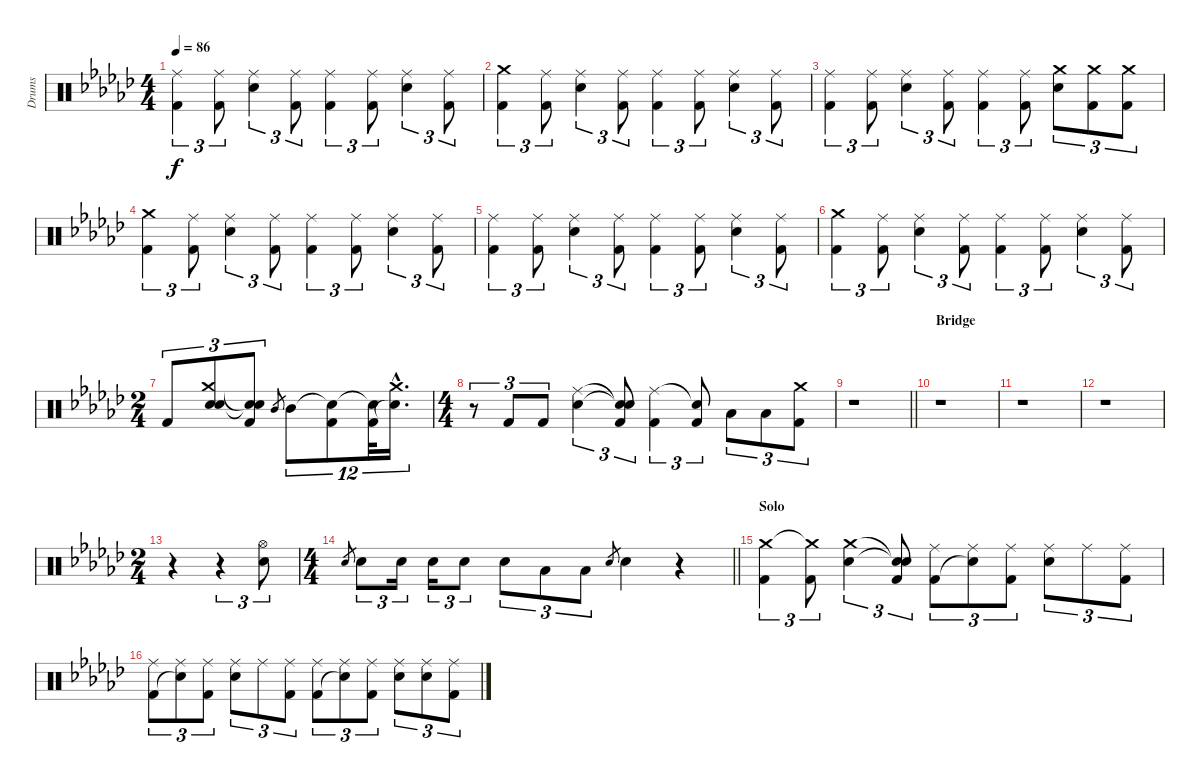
\track ("Drums" "Drums") {instrument percussion}
\staff {score}
\articulation defaults
\ts (4 4)
\tempo 86
\clef neutral
\ks ebminor
("Ride (middle)" "Kick (hit) 2").4{tu (3 2) dy f} ("Ride (middle)" "Kick (hit) 2").8{tu (3 2)} ("Ride (middle)" "Electric Snare (hit)").4{tu (3 2)} ("Ride (middle)" "Kick (hit) 2").8{tu (3 2)} ("Ride (middle)" "Kick (hit) 2").4{tu (3 2)} ("Ride (middle)" "Kick (hit) 2").8{tu (3 2)} ("Ride (middle)" "Electric Snare (hit)").4{tu (3 2)} ("Ride (middle)" "Kick (hit) 2").8{tu (3 2)} |
("Crash medium (hit)" "Kick (hit) 2").4{tu (3 2)} ("Ride (middle)" "Kick (hit) 2").8{tu (3 2)} ("Ride (middle)" "Electric Snare (hit)").4{tu (3 2)} ("Ride (middle)" "Kick (hit) 2").8{tu (3 2)} ("Ride (middle)" "Kick (hit) 2").4{tu (3 2)} ("Ride (middle)" "Kick (hit) 2").8{tu (3 2)} ("Ride (middle)" "Electric Snare (hit)").4{tu (3 2)} ("Ride (middle)" "Kick (hit) 2").8{tu (3 2)} |
("Ride (middle)" "Kick (hit) 2").4{tu (3 2)} ("Ride (middle)" "Kick (hit) 2").8{tu (3 2)} ("Ride (middle)" "Electric Snare (hit)").4{tu (3 2)} ("Ride (middle)" "Kick (hit) 2").8{tu (3 2)} ("Ride (middle)" "Kick (hit) 2").4{tu (3 2)} ("Ride (middle)" "Kick (hit) 2").8{tu (3 2)} ("Crash medium (hit)" "Electric Snare (hit)").8{tu (3 2)} ("Crash medium (hit)" "Kick (hit) 2").8{tu (3 2)} ("Crash medium (hit)" "Kick (hit) 2").8{tu (3 2)} |
("Crash medium (hit)" "Kick (hit) 2").4{tu (3 2)} ("Ride (middle)" "Kick (hit) 2").8{tu (3 2)} ("Ride (middle)" "Electric Snare (hit)").4{tu (3 2)} ("Ride (middle)" "Kick (hit) 2").8{tu (3 2)} ("Ride (middle)" "Kick (hit) 2").4{tu (3 2)} ("Ride (middle)" "Kick (hit) 2").8{tu (3 2)} ("Ride (middle)" "Electric Snare (hit)").4{tu (3 2)} ("Ride (middle)" "Kick (hit) 2").8{tu (3 2)} |
("Ride (middle)" "Kick (hit) 2").4{tu (3 2)} ("Ride (middle)" "Kick (hit) 2").8{tu (3 2)} ("Ride (middle)" "Electric Snare (hit)").4{tu (3 2)} ("Ride (middle)" "Kick (hit) 2").8{tu (3 2)} ("Ride (middle)" "Kick (hit) 2").4{tu (3 2)} ("Ride (middle)" "Kick (hit) 2").8{tu (3 2)} ("Ride (middle)" "Electric Snare (hit)").4{tu (3 2)} ("Ride (middle)" "Kick (hit) 2").8{tu (3 2)} |
("Crash medium (hit)" "Kick (hit) 2").4{tu (3 2)} ("Ride (middle)" "Kick (hit) 2").8{tu (3 2)} ("Ride (middle)" "Electric Snare (hit)").4{tu (3 2)} ("Ride (middle)" "Kick (hit) 2").8{tu (3 2)} ("Ride (middle)" "Kick (hit) 2").4{tu (3 2)} ("Ride (middle)" "Kick (hit) 2").8{tu (3 2)} ("Ride (middle)" "Electric Snare (hit)").4{tu (3 2)} ("Ride (middle)" "Kick (hit) 2").8{tu (3 2)} |
\ts (2 4)
"Kick (hit) 2".8{tu (3 2)} ("Crash medium (hit)" "Electric Snare (hit)" "Snare (hit)").8{tu (3 2)} ("Snare (hit)"{t} "Snare (hit)"{t} "Kick (hit) 2").8{tu (3 2)} "Mid Tom (hit)".8{gr} "Mid Tom (hit)".8{tu (12 8)} ("Snare (hit)"{t} "Kick (hit) 2").8{tu (12 8)} ("Snare (hit)"{t} "Kick (hit) 2").32{tu (12 8)} ("Crash medium (hit)"{hac} "Snare (hit)"{hac t}).16{d tu (12 8)} |
\ts (4 4)
r.8{tu (3 2)} "Kick (hit) 2".8{tu (3 2)} "Kick (hit) 2".8{tu (3 2)} ("Ride (middle)" "Electric Snare (hit)").4{tu (3 2)} ("Snare (hit)"{t} "Snare (hit)"{t} "Kick (hit) 2").8{tu (3 2)} ("Ride (middle)" "Kick (hit) 2").4{tu (3 2)} ("Snare (hit)"{t} "Kick (hit) 2").8{tu (3 2)} "Low Floor Tom (hit)".8{tu (3 2)} "Low Floor Tom (hit)".8{tu (3 2)} ("Crash medium (hit)" "Kick (hit) 2").8{tu (3 2)} |
\barLineRight lightlight
r.1 |
\section ("" "Bridge")
r.1 |
r.1 |
r.1 |
\ts (2 4)
r.4 r.4{tu (3 2)} ("Hi-Hat (open)" "Electric Snare (hit)").8{tu (3 2)} |
\ts (4 4)
\barLineRight lightlight "Electric Snare (hit)".8{gr} "Electric Snare (hit)".8{tu (3 2)} "Electric Snare (hit)".16{tu (3 2)} "Electric Snare (hit)".16{tu (3 2)} "Electric Snare (hit)".8{tu (3 2)} "Electric Snare (hit)".8{tu (3 2)} "Low Floor Tom (hit)".8{tu (3 2)} "Low Floor Tom (hit)".8{tu (3 2)} "Electric Snare (hit)".8{gr} "Electric Snare (hit)".4
r.4 |
\section ("" "Solo")
("Crash medium (hit)" "Kick (hit) 2").4{tu (3 2)} ("Crash medium (hit)"{t} "Kick (hit) 2").8{tu (3 2)} ("Crash medium (hit)" "Electric Snare (hit)").4{tu (3 2)} ("Snare (hit)"{t} "Snare (hit)"{t} "Kick (hit) 2").8{tu (3 2)} ("Ride (middle)" "Kick (hit) 2").8{tu (3 2)} ("Ride (middle)" "Snare (hit)"{t}).8{tu (3 2)} ("Ride (middle)" "Kick (hit) 2").8{tu (3 2)} ("Ride (middle)" "Electric Snare (hit)").8{tu (3 2)} "Ride (middle)".8{tu (3 2)} ("Ride (middle)" "Kick (hit) 2").8{tu (3 2)} |
("Ride (middle)" "Kick (hit) 2").8{tu (3 2)} ("Ride (middle)" "Snare (hit)"{t}).8{tu (3 2)} ("Ride (middle)" "Kick (hit) 2").8{tu (3 2)} ("Ride (middle)" "Electric Snare (hit)").8{tu (3 2)} "Ride (middle)".8{tu (3 2)} ("Ride (middle)" "Kick (hit) 2").8{tu (3 2)} ("Ride (middle)" "Kick (hit) 2").8{tu (3 2)} ("Ride (middle)" "Snare (hit)"{t}).8{tu (3 2)} ("Ride (middle)" "Kick (hit) 2").8{tu (3 2)} ("Ride (middle)" "Electric Snare (hit)").8{tu (3 2)} ("Ride (middle)" "Electric Snare (hit)").8{tu (3 2)} ("Ride (middle)" "Kick (hit) 2").8{tu (3 2)}
